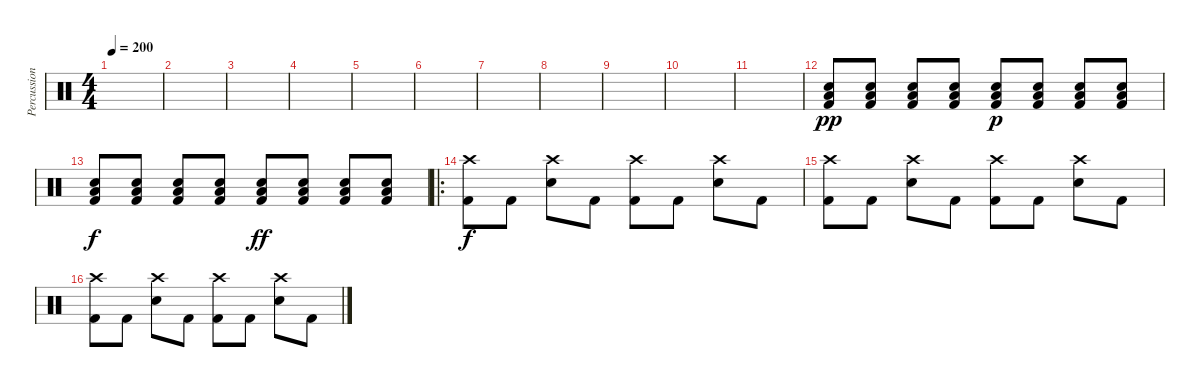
\track ("Percussions" "Percussion") {instrument percussion}
\staff {score}
\articulation defaults
\ts (4 4)
\tempo 200
\clef neutral
\ks c
|
|
|
|
|
|
|
|
|
|
|
("Low Floor Tom (hit)" "Snare (hit) 2" "Kick (hit) 2").8{dy pp} ("Low Floor Tom (hit)" "Snare (hit) 2" "Kick (hit) 2").8 ("Low Floor Tom (hit)" "Snare (hit) 2" "Kick (hit) 2").8 ("Low Floor Tom (hit)" "Snare (hit) 2" "Kick (hit) 2").8 ("Low Floor Tom (hit)" "Snare (hit) 2" "Kick (hit) 2").8{dy p} ("Low Floor Tom (hit)" "Snare (hit) 2" "Kick (hit) 2").8 ("Low Floor Tom (hit)" "Snare (hit) 2" "Kick (hit) 2").8 ("Low Floor Tom (hit)" "Snare (hit) 2" "Kick (hit) 2").8 |
("Low Floor Tom (hit)" "Snare (hit) 2" "Kick (hit) 2").8{dy f} ("Low Floor Tom (hit)" "Snare (hit) 2" "Kick (hit) 2").8 ("Low Floor Tom (hit)" "Snare (hit) 2" "Kick (hit) 2").8 ("Low Floor Tom (hit)" "Snare (hit) 2" "Kick (hit) 2").8 ("Low Floor Tom (hit)" "Snare (hit) 2" "Kick (hit) 2").8{dy ff} ("Low Floor Tom (hit)" "Snare (hit) 2" "Kick (hit) 2").8 ("Low Floor Tom (hit)" "Snare (hit) 2" "Kick (hit) 2").8 ("Low Floor Tom (hit)" "Snare (hit) 2" "Kick (hit) 2").8 |
\ro
("Crash high (hit)" "Kick (hit) 2").8{dy f volume 16} "Kick (hit) 2".8 ("Crash high (hit)" "Snare (hit) 2").8 "Kick (hit) 2".8 ("Crash high (hit)" "Kick (hit) 2").8 "Kick (hit) 2".8 ("Crash high (hit)" "Snare (hit) 2").8 "Kick (hit) 2".8 |
("Crash high (hit)" "Kick (hit) 2").8{volume 16} "Kick (hit) 2".8 ("Crash high (hit)" "Snare (hit) 2").8 "Kick (hit) 2".8 ("Crash high (hit)" "Kick (hit) 2").8 "Kick (hit) 2".8 ("Crash high (hit)" "Snare (hit) 2").8 "Kick (hit) 2".8 |
("Crash high (hit)" "Kick (hit) 2").8{volume 16} "Kick (hit) 2".8 ("Crash high (hit)" "Snare (hit) 2").8 "Kick (hit) 2".8 ("Crash high (hit)" "Kick (hit) 2").8 "Kick (hit) 2".8 ("Crash high (hit)" "Snare (hit) 2").8 "Kick (hit) 2".8
